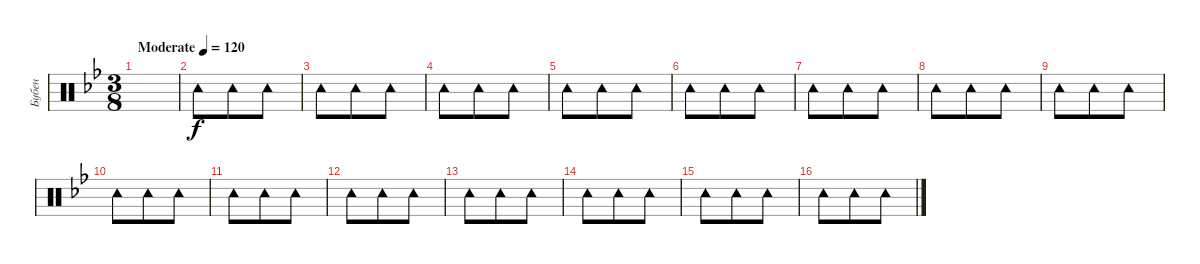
\track ("Бубен" "Бубен") {instrument percussion}
\staff {score}
\articulation defaults
\ts (3 8)
\tempo (120 "Moderate")
\clef neutral
\ks gminor
|
"Tambourine (hit)".8 "Tambourine (hit)".8 "Tambourine (hit)".8 |
"Tambourine (hit)".8 "Tambourine (hit)".8 "Tambourine (hit)".8 |
"Tambourine (hit)".8 "Tambourine (hit)".8 "Tambourine (hit)".8 |
"Tambourine (hit)".8 "Tambourine (hit)".8 "Tambourine (hit)".8 |
"Tambourine (hit)".8 "Tambourine (hit)".8 "Tambourine (hit)".8 |
"Tambourine (hit)".8 "Tambourine (hit)".8 "Tambourine (hit)".8 |
"Tambourine (hit)".8 "Tambourine (hit)".8 "Tambourine (hit)".8 |
"Tambourine (hit)".8 "Tambourine (hit)".8 "Tambourine (hit)".8 |
"Tambourine (hit)".8 "Tambourine (hit)".8 "Tambourine (hit)".8 |
"Tambourine (hit)".8 "Tambourine (hit)".8 "Tambourine (hit)".8 |
"Tambourine (hit)".8 "Tambourine (hit)".8 "Tambourine (hit)".8 |
"Tambourine (hit)".8 "Tambourine (hit)".8 "Tambourine (hit)".8 |
"Tambourine (hit)".8 "Tambourine (hit)".8 "Tambourine (hit)".8 |
"Tambourine (hit)".8 "Tambourine (hit)".8 "Tambourine (hit)".8 |
"Tambourine (hit)".8 "Tambourine (hit)".8 "Tambourine (hit)".8
